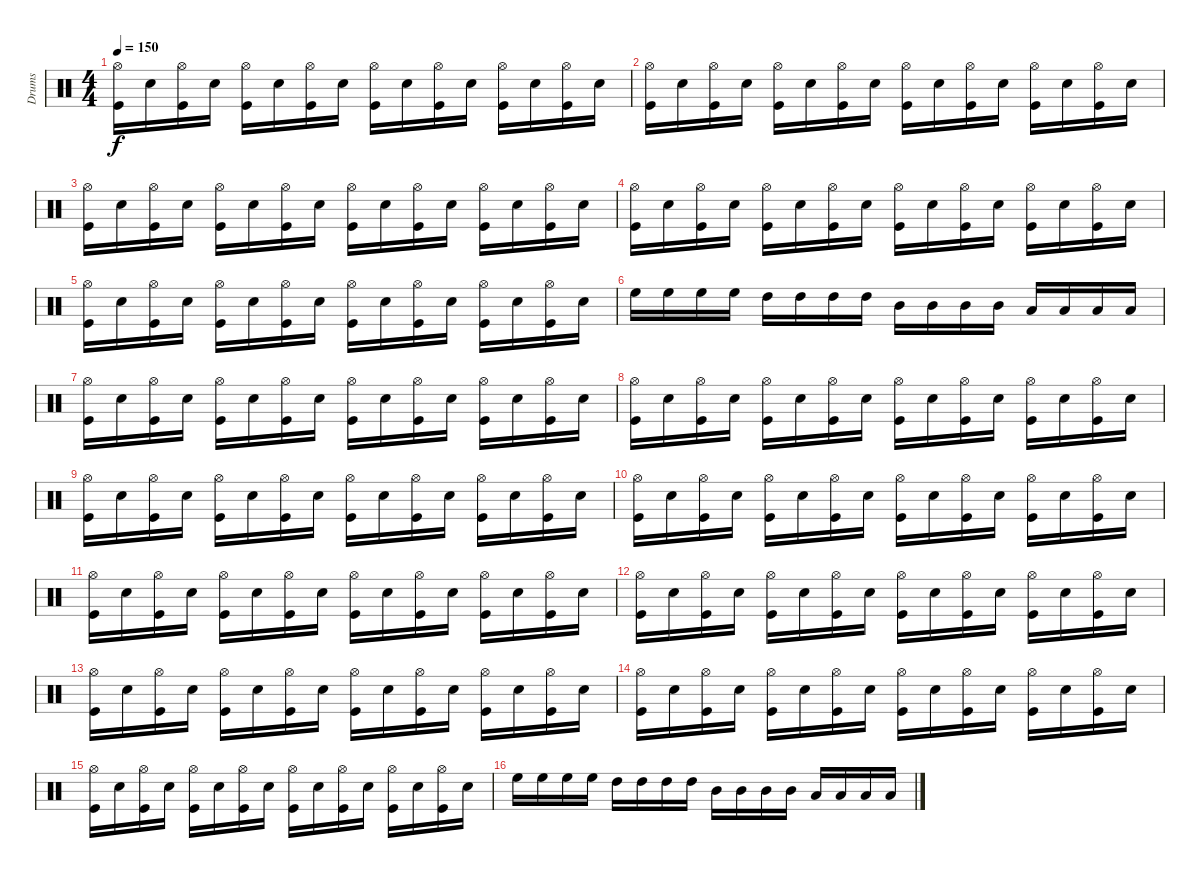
\track ("Drums" "Drums") {instrument percussion}
\staff {score}
\articulation defaults
\ts (4 4)
\tempo 150
\clef neutral
\ks c
("Hi-Hat (open)" "Kick (hit)").16{dy f} "Snare (hit) 2".16 ("Hi-Hat (open)" "Kick (hit)").16 "Snare (hit) 2".16 ("Hi-Hat (open)" "Kick (hit)").16 "Snare (hit) 2".16 ("Hi-Hat (open)" "Kick (hit)").16 "Snare (hit) 2".16 ("Hi-Hat (open)" "Kick (hit)").16 "Snare (hit) 2".16 ("Hi-Hat (open)" "Kick (hit)").16 "Snare (hit) 2".16 ("Hi-Hat (open)" "Kick (hit)").16 "Snare (hit) 2".16 ("Hi-Hat (open)" "Kick (hit)").16 "Snare (hit) 2".16 |
("Hi-Hat (open)" "Kick (hit)").16 "Snare (hit) 2".16 ("Hi-Hat (open)" "Kick (hit)").16 "Snare (hit) 2".16 ("Hi-Hat (open)" "Kick (hit)").16 "Snare (hit) 2".16 ("Hi-Hat (open)" "Kick (hit)").16 "Snare (hit) 2".16 ("Hi-Hat (open)" "Kick (hit)").16 "Snare (hit) 2".16 ("Hi-Hat (open)" "Kick (hit)").16 "Snare (hit) 2".16 ("Hi-Hat (open)" "Kick (hit)").16 "Snare (hit) 2".16 ("Hi-Hat (open)" "Kick (hit)").16 "Snare (hit) 2".16 |
("Hi-Hat (open)" "Kick (hit)").16 "Snare (hit) 2".16 ("Hi-Hat (open)" "Kick (hit)").16 "Snare (hit) 2".16 ("Hi-Hat (open)" "Kick (hit)").16 "Snare (hit) 2".16 ("Hi-Hat (open)" "Kick (hit)").16 "Snare (hit) 2".16 ("Hi-Hat (open)" "Kick (hit)").16 "Snare (hit) 2".16 ("Hi-Hat (open)" "Kick (hit)").16 "Snare (hit) 2".16 ("Hi-Hat (open)" "Kick (hit)").16 "Snare (hit) 2".16 ("Hi-Hat (open)" "Kick (hit)").16 "Snare (hit) 2".16 |
("Hi-Hat (open)" "Kick (hit)").16 "Snare (hit) 2".16 ("Hi-Hat (open)" "Kick (hit)").16 "Snare (hit) 2".16 ("Hi-Hat (open)" "Kick (hit)").16 "Snare (hit) 2".16 ("Hi-Hat (open)" "Kick (hit)").16 "Snare (hit) 2".16 ("Hi-Hat (open)" "Kick (hit)").16 "Snare (hit) 2".16 ("Hi-Hat (open)" "Kick (hit)").16 "Snare (hit) 2".16 ("Hi-Hat (open)" "Kick (hit)").16 "Snare (hit) 2".16 ("Hi-Hat (open)" "Kick (hit)").16 "Snare (hit) 2".16 |
("Hi-Hat (open)" "Kick (hit)").16 "Snare (hit) 2".16 ("Hi-Hat (open)" "Kick (hit)").16 "Snare (hit) 2".16 ("Hi-Hat (open)" "Kick (hit)").16 "Snare (hit) 2".16 ("Hi-Hat (open)" "Kick (hit)").16 "Snare (hit) 2".16 ("Hi-Hat (open)" "Kick (hit)").16 "Snare (hit) 2".16 ("Hi-Hat (open)" "Kick (hit)").16 "Snare (hit) 2".16 ("Hi-Hat (open)" "Kick (hit)").16 "Snare (hit) 2".16 ("Hi-Hat (open)" "Kick (hit)").16 "Snare (hit) 2".16 |
"High Floor Tom (hit)".16 "High Floor Tom (hit)".16 "High Floor Tom (hit)".16 "High Floor Tom (hit)".16 "High Tom (hit)".16 "High Tom (hit)".16 "High Tom (hit)".16 "High Tom (hit)".16 "Mid Tom (hit)".16 "Mid Tom (hit)".16 "Mid Tom (hit)".16 "Mid Tom (hit)".16 "Low Tom (hit)".16 "Low Tom (hit)".16 "Low Tom (hit)".16 "Low Tom (hit)".16 |
("Hi-Hat (open)" "Kick (hit)").16 "Snare (hit) 2".16 ("Hi-Hat (open)" "Kick (hit)").16 "Snare (hit) 2".16 ("Hi-Hat (open)" "Kick (hit)").16 "Snare (hit) 2".16 ("Hi-Hat (open)" "Kick (hit)").16 "Snare (hit) 2".16 ("Hi-Hat (open)" "Kick (hit)").16 "Snare (hit) 2".16 ("Hi-Hat (open)" "Kick (hit)").16 "Snare (hit) 2".16 ("Hi-Hat (open)" "Kick (hit)").16 "Snare (hit) 2".16 ("Hi-Hat (open)" "Kick (hit)").16 "Snare (hit) 2".16 |
("Hi-Hat (open)" "Kick (hit)").16 "Snare (hit) 2".16 ("Hi-Hat (open)" "Kick (hit)").16 "Snare (hit) 2".16 ("Hi-Hat (open)" "Kick (hit)").16 "Snare (hit) 2".16 ("Hi-Hat (open)" "Kick (hit)").16 "Snare (hit) 2".16 ("Hi-Hat (open)" "Kick (hit)").16 "Snare (hit) 2".16 ("Hi-Hat (open)" "Kick (hit)").16 "Snare (hit) 2".16 ("Hi-Hat (open)" "Kick (hit)").16 "Snare (hit) 2".16 ("Hi-Hat (open)" "Kick (hit)").16 "Snare (hit) 2".16 |
("Hi-Hat (open)" "Kick (hit)").16 "Snare (hit) 2".16 ("Hi-Hat (open)" "Kick (hit)").16 "Snare (hit) 2".16 ("Hi-Hat (open)" "Kick (hit)").16 "Snare (hit) 2".16 ("Hi-Hat (open)" "Kick (hit)").16 "Snare (hit) 2".16 ("Hi-Hat (open)" "Kick (hit)").16 "Snare (hit) 2".16 ("Hi-Hat (open)" "Kick (hit)").16 "Snare (hit) 2".16 ("Hi-Hat (open)" "Kick (hit)").16 "Snare (hit) 2".16 ("Hi-Hat (open)" "Kick (hit)").16 "Snare (hit) 2".16 |
("Hi-Hat (open)" "Kick (hit)").16 "Snare (hit) 2".16 ("Hi-Hat (open)" "Kick (hit)").16 "Snare (hit) 2".16 ("Hi-Hat (open)" "Kick (hit)").16 "Snare (hit) 2".16 ("Hi-Hat (open)" "Kick (hit)").16 "Snare (hit) 2".16 ("Hi-Hat (open)" "Kick (hit)").16 "Snare (hit) 2".16 ("Hi-Hat (open)" "Kick (hit)").16 "Snare (hit) 2".16 ("Hi-Hat (open)" "Kick (hit)").16 "Snare (hit) 2".16 ("Hi-Hat (open)" "Kick (hit)").16 "Snare (hit) 2".16 |
("Hi-Hat (open)" "Kick (hit)").16 "Snare (hit) 2".16 ("Hi-Hat (open)" "Kick (hit)").16 "Snare (hit) 2".16 ("Hi-Hat (open)" "Kick (hit)").16 "Snare (hit) 2".16 ("Hi-Hat (open)" "Kick (hit)").16 "Snare (hit) 2".16 ("Hi-Hat (open)" "Kick (hit)").16 "Snare (hit) 2".16 ("Hi-Hat (open)" "Kick (hit)").16 "Snare (hit) 2".16 ("Hi-Hat (open)" "Kick (hit)").16 "Snare (hit) 2".16 ("Hi-Hat (open)" "Kick (hit)").16 "Snare (hit) 2".16 |
("Hi-Hat (open)" "Kick (hit)").16 "Snare (hit) 2".16 ("Hi-Hat (open)" "Kick (hit)").16 "Snare (hit) 2".16 ("Hi-Hat (open)" "Kick (hit)").16 "Snare (hit) 2".16 ("Hi-Hat (open)" "Kick (hit)").16 "Snare (hit) 2".16 ("Hi-Hat (open)" "Kick (hit)").16 "Snare (hit) 2".16 ("Hi-Hat (open)" "Kick (hit)").16 "Snare (hit) 2".16 ("Hi-Hat (open)" "Kick (hit)").16 "Snare (hit) 2".16 ("Hi-Hat (open)" "Kick (hit)").16 "Snare (hit) 2".16 |
("Hi-Hat (open)" "Kick (hit)").16 "Snare (hit) 2".16 ("Hi-Hat (open)" "Kick (hit)").16 "Snare (hit) 2".16 ("Hi-Hat (open)" "Kick (hit)").16 "Snare (hit) 2".16 ("Hi-Hat (open)" "Kick (hit)").16 "Snare (hit) 2".16 ("Hi-Hat (open)" "Kick (hit)").16 "Snare (hit) 2".16 ("Hi-Hat (open)" "Kick (hit)").16 "Snare (hit) 2".16 ("Hi-Hat (open)" "Kick (hit)").16 "Snare (hit) 2".16 ("Hi-Hat (open)" "Kick (hit)").16 "Snare (hit) 2".16 |
("Hi-Hat (open)" "Kick (hit)").16 "Snare (hit) 2".16 ("Hi-Hat (open)" "Kick (hit)").16 "Snare (hit) 2".16 ("Hi-Hat (open)" "Kick (hit)").16 "Snare (hit) 2".16 ("Hi-Hat (open)" "Kick (hit)").16 "Snare (hit) 2".16 ("Hi-Hat (open)" "Kick (hit)").16 "Snare (hit) 2".16 ("Hi-Hat (open)" "Kick (hit)").16 "Snare (hit) 2".16 ("Hi-Hat (open)" "Kick (hit)").16 "Snare (hit) 2".16 ("Hi-Hat (open)" "Kick (hit)").16 "Snare (hit) 2".16 |
("Hi-Hat (open)" "Kick (hit)").16 "Snare (hit) 2".16 ("Hi-Hat (open)" "Kick (hit)").16 "Snare (hit) 2".16 ("Hi-Hat (open)" "Kick (hit)").16 "Snare (hit) 2".16 ("Hi-Hat (open)" "Kick (hit)").16 "Snare (hit) 2".16 ("Hi-Hat (open)" "Kick (hit)").16 "Snare (hit) 2".16 ("Hi-Hat (open)" "Kick (hit)").16 "Snare (hit) 2".16 ("Hi-Hat (open)" "Kick (hit)").16 "Snare (hit) 2".16 ("Hi-Hat (open)" "Kick (hit)").16 "Snare (hit) 2".16 |
"High Floor Tom (hit)".16 "High Floor Tom (hit)".16 "High Floor Tom (hit)".16 "High Floor Tom (hit)".16 "High Tom (hit)".16 "High Tom (hit)".16 "High Tom (hit)".16 "High Tom (hit)".16 "Mid Tom (hit)".16 "Mid Tom (hit)".16 "Mid Tom (hit)".16 "Mid Tom (hit)".16 "Low Tom (hit)".16 "Low Tom (hit)".16 "Low Tom (hit)".16 "Low Tom (hit)".16
